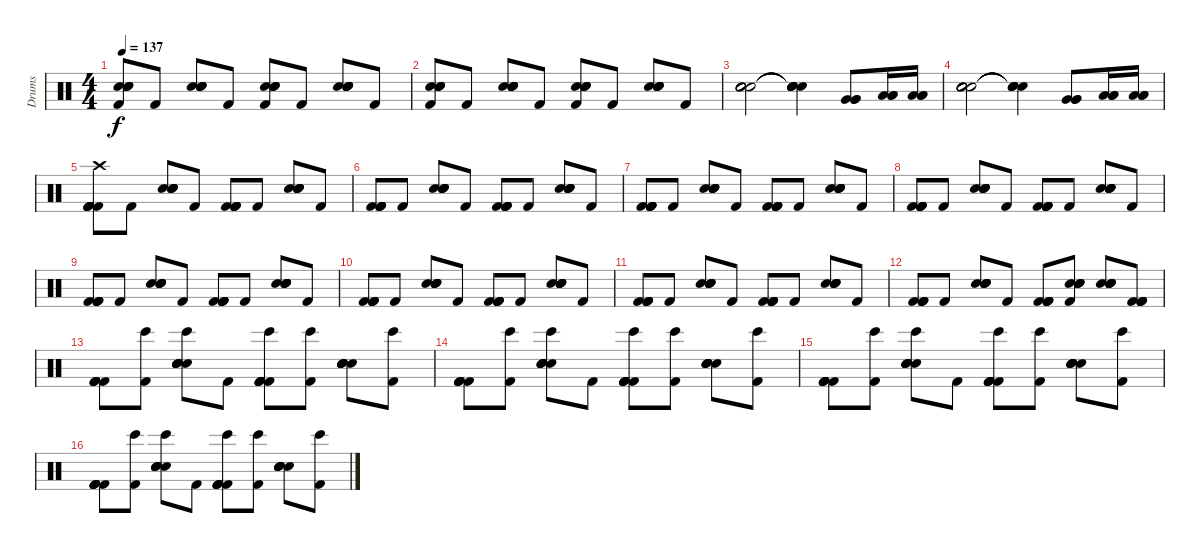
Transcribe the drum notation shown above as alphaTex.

\track ("Drums" "Drums") {instrument percussion}
\staff {score}
\articulation defaults
\ts (4 4)
\tempo 137
\clef neutral
\ks c
("Kick (hit) 2" "Snare (hit) 2" "Snare (hit) 2" "Snare (hit) 2" "Snare (hit) 2").8{dy f} "Kick (hit) 2".8 ("Snare (hit) 2" "Snare (hit) 2" "Snare (hit) 2" "Snare (hit) 2" "Snare (hit) 2").8 "Kick (hit) 2".8 ("Kick (hit) 2" "Snare (hit) 2" "Snare (hit) 2" "Snare (hit) 2" "Snare (hit) 2").8 "Kick (hit) 2".8 ("Snare (hit) 2" "Snare (hit) 2" "Snare (hit) 2" "Snare (hit) 2" "Snare (hit) 2").8 "Kick (hit) 2".8 |
("Kick (hit) 2" "Snare (hit) 2" "Snare (hit) 2" "Snare (hit) 2" "Snare (hit) 2").8 "Kick (hit) 2".8 ("Snare (hit) 2" "Snare (hit) 2" "Snare (hit) 2" "Snare (hit) 2" "Snare (hit) 2").8 "Kick (hit) 2".8 ("Kick (hit) 2" "Snare (hit) 2" "Snare (hit) 2" "Snare (hit) 2" "Snare (hit) 2").8 "Kick (hit) 2".8 ("Snare (hit) 2" "Snare (hit) 2" "Snare (hit) 2" "Snare (hit) 2" "Snare (hit) 2").8 "Kick (hit) 2".8 |
("Electric Snare (hit)" "Electric Snare (hit)" "Electric Snare (hit)" "Electric Snare (hit)" "Electric Snare (hit)").2 ("Snare (hit)"{t} "Snare (hit)"{t} "Snare (hit)"{t} "Snare (hit)"{t} "Snare (hit)"{t}).4 ("Very Low Tom (hit)" "Very Low Tom (hit)" "Very Low Tom (hit)").8 ("Low Floor Tom (hit)" "Low Floor Tom (hit)" "Low Floor Tom (hit)").16 ("Low Floor Tom (hit)" "Low Floor Tom (hit)" "Low Floor Tom (hit)").16 |
("Electric Snare (hit)" "Electric Snare (hit)" "Electric Snare (hit)" "Electric Snare (hit)" "Electric Snare (hit)").2 ("Snare (hit)"{t} "Snare (hit)"{t} "Snare (hit)"{t} "Snare (hit)"{t} "Snare (hit)"{t}).4 ("Very Low Tom (hit)" "Very Low Tom (hit)" "Very Low Tom (hit)").8 ("Low Floor Tom (hit)" "Low Floor Tom (hit)" "Low Floor Tom (hit)").16 ("Low Floor Tom (hit)" "Low Floor Tom (hit)" "Low Floor Tom (hit)").16 |
("Crash high (hit)" "Kick (hit) 2" "Kick (hit) 2" "Kick (hit) 2" "Kick (hit) 2" "Kick (hit) 2").8 "Kick (hit) 2".8 ("Snare (hit) 2" "Snare (hit) 2" "Snare (hit) 2" "Snare (hit) 2" "Snare (hit) 2").8 "Kick (hit) 2".8 ("Kick (hit) 2" "Kick (hit) 2" "Kick (hit) 2" "Kick (hit) 2" "Kick (hit) 2").8 "Kick (hit) 2".8 ("Snare (hit) 2" "Snare (hit) 2" "Snare (hit) 2" "Snare (hit) 2" "Snare (hit) 2").8 "Kick (hit) 2".8 |
("Kick (hit) 2" "Kick (hit) 2" "Kick (hit) 2" "Kick (hit) 2" "Kick (hit) 2").8 "Kick (hit) 2".8 ("Snare (hit) 2" "Snare (hit) 2" "Snare (hit) 2" "Snare (hit) 2" "Snare (hit) 2").8 "Kick (hit) 2".8 ("Kick (hit) 2" "Kick (hit) 2" "Kick (hit) 2" "Kick (hit) 2" "Kick (hit) 2").8 "Kick (hit) 2".8 ("Snare (hit) 2" "Snare (hit) 2" "Snare (hit) 2" "Snare (hit) 2" "Snare (hit) 2").8 "Kick (hit) 2".8 |
("Kick (hit) 2" "Kick (hit) 2" "Kick (hit) 2" "Kick (hit) 2" "Kick (hit) 2").8 "Kick (hit) 2".8 ("Snare (hit) 2" "Snare (hit) 2" "Snare (hit) 2" "Snare (hit) 2" "Snare (hit) 2").8 "Kick (hit) 2".8 ("Kick (hit) 2" "Kick (hit) 2" "Kick (hit) 2" "Kick (hit) 2" "Kick (hit) 2").8 "Kick (hit) 2".8 ("Snare (hit) 2" "Snare (hit) 2" "Snare (hit) 2" "Snare (hit) 2" "Snare (hit) 2").8 "Kick (hit) 2".8 |
("Kick (hit) 2" "Kick (hit) 2" "Kick (hit) 2" "Kick (hit) 2" "Kick (hit) 2").8 "Kick (hit) 2".8 ("Snare (hit) 2" "Snare (hit) 2" "Snare (hit) 2" "Snare (hit) 2" "Snare (hit) 2").8 "Kick (hit) 2".8 ("Kick (hit) 2" "Kick (hit) 2" "Kick (hit) 2" "Kick (hit) 2" "Kick (hit) 2").8 "Kick (hit) 2".8 ("Snare (hit) 2" "Snare (hit) 2" "Snare (hit) 2" "Snare (hit) 2" "Snare (hit) 2").8 "Kick (hit) 2".8 |
("Kick (hit) 2" "Kick (hit) 2" "Kick (hit) 2" "Kick (hit) 2" "Kick (hit) 2").8 "Kick (hit) 2".8 ("Snare (hit) 2" "Snare (hit) 2" "Snare (hit) 2" "Snare (hit) 2" "Snare (hit) 2").8 "Kick (hit) 2".8 ("Kick (hit) 2" "Kick (hit) 2" "Kick (hit) 2" "Kick (hit) 2" "Kick (hit) 2").8 "Kick (hit) 2".8 ("Snare (hit) 2" "Snare (hit) 2" "Snare (hit) 2" "Snare (hit) 2" "Snare (hit) 2").8 "Kick (hit) 2".8 |
("Kick (hit) 2" "Kick (hit) 2" "Kick (hit) 2" "Kick (hit) 2" "Kick (hit) 2").8 "Kick (hit) 2".8 ("Snare (hit) 2" "Snare (hit) 2" "Snare (hit) 2" "Snare (hit) 2" "Snare (hit) 2").8 "Kick (hit) 2".8 ("Kick (hit) 2" "Kick (hit) 2" "Kick (hit) 2" "Kick (hit) 2" "Kick (hit) 2").8 "Kick (hit) 2".8 ("Snare (hit) 2" "Snare (hit) 2" "Snare (hit) 2" "Snare (hit) 2" "Snare (hit) 2").8 "Kick (hit) 2".8 |
("Kick (hit) 2" "Kick (hit) 2" "Kick (hit) 2" "Kick (hit) 2" "Kick (hit) 2").8 "Kick (hit) 2".8 ("Snare (hit) 2" "Snare (hit) 2" "Snare (hit) 2" "Snare (hit) 2" "Snare (hit) 2").8 "Kick (hit) 2".8 ("Kick (hit) 2" "Kick (hit) 2" "Kick (hit) 2" "Kick (hit) 2" "Kick (hit) 2").8 "Kick (hit) 2".8 ("Snare (hit) 2" "Snare (hit) 2" "Snare (hit) 2" "Snare (hit) 2" "Snare (hit) 2").8 "Kick (hit) 2".8 |
("Kick (hit) 2" "Kick (hit) 2" "Kick (hit) 2" "Kick (hit) 2" "Kick (hit) 2").8 "Kick (hit) 2".8 ("Snare (hit) 2" "Snare (hit) 2" "Snare (hit) 2" "Snare (hit) 2" "Snare (hit) 2").8 "Kick (hit) 2".8 ("Kick (hit) 2" "Kick (hit) 2" "Kick (hit) 2" "Kick (hit) 2" "Kick (hit) 2").8 ("Kick (hit) 2" "Snare (hit) 2" "Snare (hit) 2" "Snare (hit) 2" "Snare (hit) 2").8 ("Snare (hit) 2" "Snare (hit) 2" "Snare (hit) 2" "Snare (hit) 2" "Snare (hit) 2").8 ("Kick (hit) 2" "Kick (hit) 2" "Kick (hit) 2" "Kick (hit) 2" "Kick (hit) 2").8 |
("Kick (hit) 2" "Kick (hit) 2" "Kick (hit) 2" "Kick (hit) 2" "Kick (hit) 2").8 ("Bongo High (hit)" "Kick (hit) 2").8 ("Bongo High (hit)" "Snare (hit) 2" "Snare (hit) 2" "Snare (hit) 2" "Snare (hit) 2" "Snare (hit) 2").8 "Kick (hit) 2".8 ("Bongo High (hit)" "Kick (hit) 2" "Kick (hit) 2" "Kick (hit) 2" "Kick (hit) 2" "Kick (hit) 2").8 ("Bongo High (hit)" "Kick (hit) 2").8 ("Snare (hit) 2" "Snare (hit) 2" "Snare (hit) 2" "Snare (hit) 2" "Snare (hit) 2").8 ("Bongo High (hit)" "Kick (hit) 2").8 |
("Kick (hit) 2" "Kick (hit) 2" "Kick (hit) 2" "Kick (hit) 2" "Kick (hit) 2").8 ("Bongo High (hit)" "Kick (hit) 2").8 ("Bongo High (hit)" "Snare (hit) 2" "Snare (hit) 2" "Snare (hit) 2" "Snare (hit) 2" "Snare (hit) 2").8 "Kick (hit) 2".8 ("Bongo High (hit)" "Kick (hit) 2" "Kick (hit) 2" "Kick (hit) 2" "Kick (hit) 2" "Kick (hit) 2").8 ("Bongo High (hit)" "Kick (hit) 2").8 ("Snare (hit) 2" "Snare (hit) 2" "Snare (hit) 2" "Snare (hit) 2" "Snare (hit) 2").8 ("Bongo High (hit)" "Kick (hit) 2").8 |
("Kick (hit) 2" "Kick (hit) 2" "Kick (hit) 2" "Kick (hit) 2" "Kick (hit) 2").8 ("Bongo High (hit)" "Kick (hit) 2").8 ("Bongo High (hit)" "Snare (hit) 2" "Snare (hit) 2" "Snare (hit) 2" "Snare (hit) 2" "Snare (hit) 2").8 "Kick (hit) 2".8 ("Bongo High (hit)" "Kick (hit) 2" "Kick (hit) 2" "Kick (hit) 2" "Kick (hit) 2" "Kick (hit) 2").8 ("Bongo High (hit)" "Kick (hit) 2").8 ("Snare (hit) 2" "Snare (hit) 2" "Snare (hit) 2" "Snare (hit) 2" "Snare (hit) 2").8 ("Bongo High (hit)" "Kick (hit) 2").8 |
("Kick (hit) 2" "Kick (hit) 2" "Kick (hit) 2" "Kick (hit) 2" "Kick (hit) 2").8 ("Bongo High (hit)" "Kick (hit) 2").8 ("Bongo High (hit)" "Snare (hit) 2" "Snare (hit) 2" "Snare (hit) 2" "Snare (hit) 2" "Snare (hit) 2").8 "Kick (hit) 2".8 ("Bongo High (hit)" "Kick (hit) 2" "Kick (hit) 2" "Kick (hit) 2" "Kick (hit) 2" "Kick (hit) 2").8 ("Bongo High (hit)" "Kick (hit) 2").8 ("Snare (hit) 2" "Snare (hit) 2" "Snare (hit) 2" "Snare (hit) 2" "Snare (hit) 2").8 ("Bongo High (hit)" "Kick (hit) 2").8
